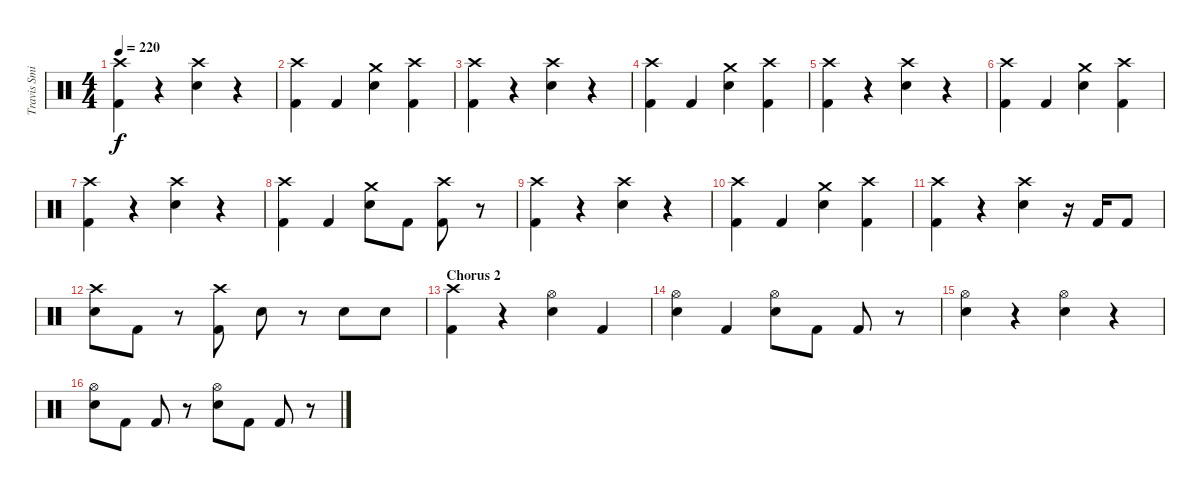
\track ("Travis Smith" "Travis Smi") {instrument percussion}
\staff {score}
\articulation defaults
\ts (4 4)
\tempo 220
\clef neutral
\ks c
("Crash high (hit)" "Kick (hit) 2").4{dy f} r.4 ("Crash high (hit)" "Electric Snare (hit)").4 r.4 |
("Crash high (hit)" "Kick (hit) 2").4 "Kick (hit) 2".4 ("Crash medium (hit)" "Electric Snare (hit)").4 ("Crash high (hit)" "Kick (hit) 2").4 |
("Crash high (hit)" "Kick (hit) 2").4 r.4 ("Crash high (hit)" "Electric Snare (hit)").4 r.4 |
("Crash high (hit)" "Kick (hit) 2").4 "Kick (hit) 2".4 ("Crash medium (hit)" "Electric Snare (hit)").4 ("Crash high (hit)" "Kick (hit) 2").4 |
("Crash high (hit)" "Kick (hit) 2").4 r.4 ("Crash high (hit)" "Electric Snare (hit)").4 r.4 |
("Crash high (hit)" "Kick (hit) 2").4 "Kick (hit) 2".4 ("Crash medium (hit)" "Electric Snare (hit)").4 ("Crash high (hit)" "Kick (hit) 2").4 |
("Crash high (hit)" "Kick (hit) 2").4 r.4 ("Crash high (hit)" "Electric Snare (hit)").4 r.4 |
("Crash high (hit)" "Kick (hit) 2").4 "Kick (hit) 2".4 ("Crash medium (hit)" "Electric Snare (hit)").8 "Kick (hit) 2".8 ("Crash high (hit)" "Kick (hit) 2").8 r.8 |
("Crash high (hit)" "Kick (hit) 2").4 r.4 ("Crash high (hit)" "Electric Snare (hit)").4 r.4 |
("Crash high (hit)" "Kick (hit) 2").4 "Kick (hit) 2".4 ("Crash medium (hit)" "Electric Snare (hit)").4 ("Crash high (hit)" "Kick (hit) 2").4 |
("Crash high (hit)" "Kick (hit) 2").4 r.4 ("Crash high (hit)" "Electric Snare (hit)").4 r.16 "Kick (hit) 2".16 "Kick (hit) 2".8 |
("Crash high (hit)" "Electric Snare (hit)").8 "Kick (hit) 2".8 r.8 ("Crash high (hit)" "Kick (hit) 2").8 "Electric Snare (hit)".8 r.8 "Electric Snare (hit)".8 "Electric Snare (hit)".8 |
\section ("" "Chorus 2")
("Crash high (hit)" "Kick (hit) 2").4 r.4 ("Hi-Hat (open)" "Electric Snare (hit)").4 "Kick (hit) 2".4 |
("Hi-Hat (open)" "Electric Snare (hit)").4 "Kick (hit) 2".4 ("Hi-Hat (open)" "Electric Snare (hit)").8 "Kick (hit) 2".8 "Kick (hit) 2".8 r.8 |
("Hi-Hat (open)" "Electric Snare (hit)").4 r.4 ("Hi-Hat (open)" "Electric Snare (hit)").4 r.4 |
("Hi-Hat (open)" "Electric Snare (hit)").8 "Kick (hit) 2".8 "Kick (hit) 2".8 r.8 ("Hi-Hat (open)" "Electric Snare (hit)").8 "Kick (hit) 2".8 "Kick (hit) 2".8 r.8
